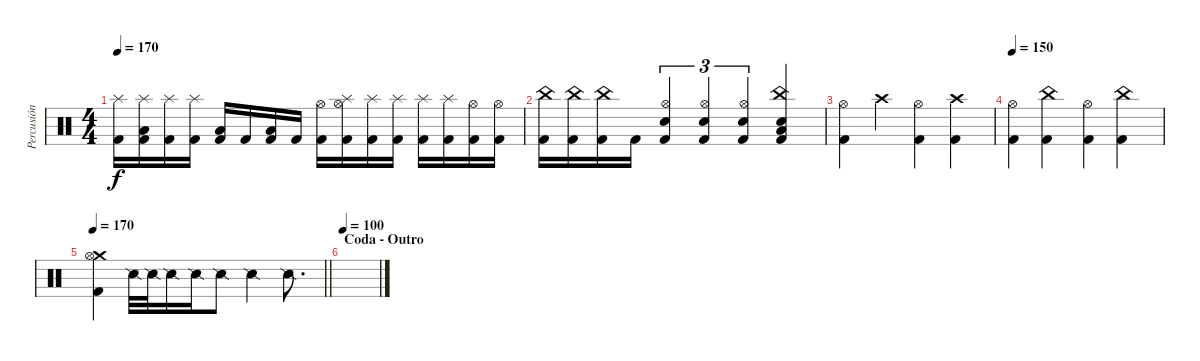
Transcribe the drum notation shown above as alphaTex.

\track ("Percusión" "Percusión") {instrument percussion}
\staff {score}
\articulation defaults
\ts (4 4)
\tempo 170
\clef neutral
\ks c
("Splash (hit)" "Kick (hit) 2").16{dy f} ("Splash (hit)" "Low Floor Tom (hit)" "Kick (hit) 2").16 ("Splash (hit)" "Kick (hit) 2").16 ("Splash (hit)" "Kick (hit) 2").16 ("Low Floor Tom (hit)" "Kick (hit) 2").16 "Kick (hit) 2".16 ("Low Floor Tom (hit)" "Kick (hit) 2").16 "Kick (hit) 2".16 ("Hi-Hat (open)" "Kick (hit) 2").16 ("Splash (hit)" "Hi-Hat (open)" "Kick (hit) 2").16 ("Splash (hit)" "Kick (hit) 2").16 ("Splash (hit)" "Kick (hit) 2").16 ("Splash (hit)" "Kick (hit) 2").16 ("Splash (hit)" "Kick (hit) 2").16 ("Hi-Hat (open)" "Kick (hit) 2").16 ("Hi-Hat (open)" "Kick (hit) 2").16 |
("China (hit)" "Kick (hit) 2").16 ("China (hit)" "Kick (hit) 2").16 ("China (hit)" "Kick (hit) 2").16 "Kick (hit) 2".16 ("Hi-Hat (open)" "Electric Snare (hit)" "Kick (hit) 2").4{tu (3 2)} ("Hi-Hat (open)" "Electric Snare (hit)" "Kick (hit) 2").4{tu (3 2)} ("Hi-Hat (open)" "Electric Snare (hit)" "Kick (hit) 2").4{tu (3 2)} ("China (hit)" "Electric Snare (hit)" "Kick (hit) 2" "Low Floor Tom (hit)").4 |
("Hi-Hat (open)" "Kick (hit) 2").4 "Crash high (hit)".4 ("Hi-Hat (open)" "Kick (hit) 2").4 ("Crash high (hit)" "Kick (hit) 2").4 |
\tempo 150
("Hi-Hat (open)" "Kick (hit) 2").4 ("China (hit)" "Kick (hit) 2").4 ("Hi-Hat (open)" "Kick (hit) 2").4 ("China (hit)" "Kick (hit) 2").4 |
\tempo 170
\barLineRight lightlight
("Crash medium (hit)" "Hi-Hat (open)" "Kick (hit) 2").4 "Snare (side stick) 2".32 "Snare (side stick) 2".32 "Snare (side stick) 2".16 "Snare (side stick) 2".16 "Snare (side stick) 2".8 "Snare (side stick) 2".4 "Snare (side stick) 2".8{d} |
\section ("" "Coda - Outro")
\tempo 100
